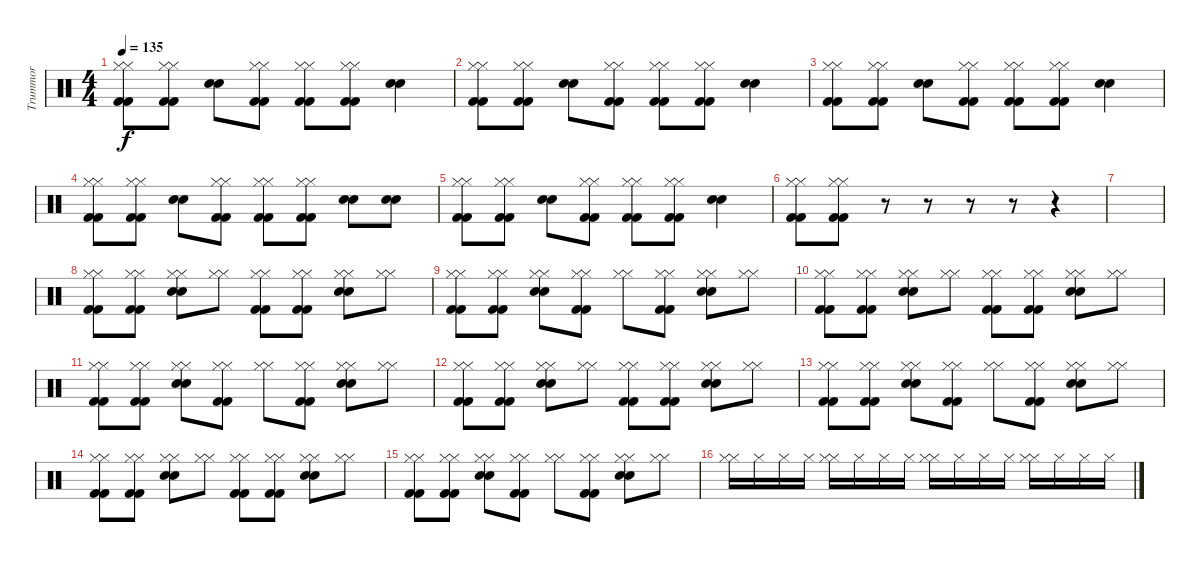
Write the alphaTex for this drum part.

\track ("Trummor" "Trummor") {instrument percussion}
\staff {score}
\articulation defaults
\ts (4 4)
\tempo 135
\clef neutral
\ks c
("Hi-Hat (closed)" "Hi-Hat (closed)" "Kick (hit) 2" "Kick (hit) 2").8{dy f} ("Hi-Hat (closed)" "Hi-Hat (closed)" "Kick (hit) 2" "Kick (hit) 2").8 ("Snare (hit) 2" "Snare (hit) 2").8 ("Hi-Hat (closed)" "Hi-Hat (closed)" "Kick (hit) 2" "Kick (hit) 2").8 ("Hi-Hat (closed)" "Hi-Hat (closed)" "Kick (hit) 2" "Kick (hit) 2").8 ("Hi-Hat (closed)" "Hi-Hat (closed)" "Kick (hit) 2" "Kick (hit) 2").8 ("Snare (hit) 2" "Snare (hit) 2").4 |
("Hi-Hat (closed)" "Hi-Hat (closed)" "Kick (hit) 2" "Kick (hit) 2").8 ("Hi-Hat (closed)" "Hi-Hat (closed)" "Kick (hit) 2" "Kick (hit) 2").8 ("Snare (hit) 2" "Snare (hit) 2").8 ("Hi-Hat (closed)" "Hi-Hat (closed)" "Kick (hit) 2" "Kick (hit) 2").8 ("Hi-Hat (closed)" "Hi-Hat (closed)" "Kick (hit) 2" "Kick (hit) 2").8 ("Hi-Hat (closed)" "Hi-Hat (closed)" "Kick (hit) 2" "Kick (hit) 2").8 ("Snare (hit) 2" "Snare (hit) 2").4 |
("Hi-Hat (closed)" "Hi-Hat (closed)" "Kick (hit) 2" "Kick (hit) 2").8 ("Hi-Hat (closed)" "Hi-Hat (closed)" "Kick (hit) 2" "Kick (hit) 2").8 ("Snare (hit) 2" "Snare (hit) 2").8 ("Hi-Hat (closed)" "Hi-Hat (closed)" "Kick (hit) 2" "Kick (hit) 2").8 ("Hi-Hat (closed)" "Hi-Hat (closed)" "Kick (hit) 2" "Kick (hit) 2").8 ("Hi-Hat (closed)" "Hi-Hat (closed)" "Kick (hit) 2" "Kick (hit) 2").8 ("Snare (hit) 2" "Snare (hit) 2").4 |
("Hi-Hat (closed)" "Hi-Hat (closed)" "Kick (hit) 2" "Kick (hit) 2").8 ("Hi-Hat (closed)" "Hi-Hat (closed)" "Kick (hit) 2" "Kick (hit) 2").8 ("Snare (hit) 2" "Snare (hit) 2").8 ("Hi-Hat (closed)" "Hi-Hat (closed)" "Kick (hit) 2" "Kick (hit) 2").8 ("Hi-Hat (closed)" "Hi-Hat (closed)" "Kick (hit) 2" "Kick (hit) 2").8 ("Hi-Hat (closed)" "Hi-Hat (closed)" "Kick (hit) 2" "Kick (hit) 2").8 ("Snare (hit) 2" "Snare (hit) 2").8 ("Snare (hit) 2" "Snare (hit) 2").8 |
("Hi-Hat (closed)" "Hi-Hat (closed)" "Kick (hit) 2" "Kick (hit) 2").8 ("Hi-Hat (closed)" "Hi-Hat (closed)" "Kick (hit) 2" "Kick (hit) 2").8 ("Snare (hit) 2" "Snare (hit) 2").8 ("Hi-Hat (closed)" "Hi-Hat (closed)" "Kick (hit) 2" "Kick (hit) 2").8 ("Hi-Hat (closed)" "Hi-Hat (closed)" "Kick (hit) 2" "Kick (hit) 2").8 ("Hi-Hat (closed)" "Hi-Hat (closed)" "Kick (hit) 2" "Kick (hit) 2").8 ("Snare (hit) 2" "Snare (hit) 2").4 |
("Hi-Hat (closed)" "Hi-Hat (closed)" "Kick (hit) 2" "Kick (hit) 2").8 ("Hi-Hat (closed)" "Hi-Hat (closed)" "Kick (hit) 2" "Kick (hit) 2").8 r.8 r.8 r.8 r.8 r.4 |
|
("Hi-Hat (closed)" "Hi-Hat (closed)" "Kick (hit) 2" "Kick (hit) 2").8 ("Hi-Hat (closed)" "Hi-Hat (closed)" "Kick (hit) 2" "Kick (hit) 2").8 ("Hi-Hat (closed)" "Hi-Hat (closed)" "Snare (hit) 2" "Snare (hit) 2").8 ("Hi-Hat (closed)" "Hi-Hat (closed)").8 ("Hi-Hat (closed)" "Hi-Hat (closed)" "Kick (hit) 2" "Kick (hit) 2").8 ("Hi-Hat (closed)" "Hi-Hat (closed)" "Kick (hit) 2" "Kick (hit) 2").8 ("Hi-Hat (closed)" "Hi-Hat (closed)" "Snare (hit) 2" "Snare (hit) 2").8 ("Hi-Hat (closed)" "Hi-Hat (closed)").8 |
("Hi-Hat (closed)" "Hi-Hat (closed)" "Kick (hit) 2" "Kick (hit) 2").8 ("Hi-Hat (closed)" "Hi-Hat (closed)" "Kick (hit) 2" "Kick (hit) 2").8 ("Hi-Hat (closed)" "Hi-Hat (closed)" "Snare (hit) 2" "Snare (hit) 2").8 ("Hi-Hat (closed)" "Hi-Hat (closed)" "Kick (hit) 2" "Kick (hit) 2").8 ("Hi-Hat (closed)" "Hi-Hat (closed)").8 ("Hi-Hat (closed)" "Hi-Hat (closed)" "Kick (hit) 2" "Kick (hit) 2").8 ("Hi-Hat (closed)" "Hi-Hat (closed)" "Snare (hit) 2" "Snare (hit) 2").8 ("Hi-Hat (closed)" "Hi-Hat (closed)").8 |
("Hi-Hat (closed)" "Hi-Hat (closed)" "Kick (hit) 2" "Kick (hit) 2").8 ("Hi-Hat (closed)" "Hi-Hat (closed)" "Kick (hit) 2" "Kick (hit) 2").8 ("Hi-Hat (closed)" "Hi-Hat (closed)" "Snare (hit) 2" "Snare (hit) 2").8 ("Hi-Hat (closed)" "Hi-Hat (closed)").8 ("Hi-Hat (closed)" "Hi-Hat (closed)" "Kick (hit) 2" "Kick (hit) 2").8 ("Hi-Hat (closed)" "Hi-Hat (closed)" "Kick (hit) 2" "Kick (hit) 2").8 ("Hi-Hat (closed)" "Hi-Hat (closed)" "Snare (hit) 2" "Snare (hit) 2").8 ("Hi-Hat (closed)" "Hi-Hat (closed)").8 |
("Hi-Hat (closed)" "Hi-Hat (closed)" "Kick (hit) 2" "Kick (hit) 2").8 ("Hi-Hat (closed)" "Hi-Hat (closed)" "Kick (hit) 2" "Kick (hit) 2").8 ("Hi-Hat (closed)" "Hi-Hat (closed)" "Snare (hit) 2" "Snare (hit) 2").8 ("Hi-Hat (closed)" "Hi-Hat (closed)" "Kick (hit) 2" "Kick (hit) 2").8 ("Hi-Hat (closed)" "Hi-Hat (closed)").8 ("Hi-Hat (closed)" "Hi-Hat (closed)" "Kick (hit) 2" "Kick (hit) 2").8 ("Hi-Hat (closed)" "Hi-Hat (closed)" "Snare (hit) 2" "Snare (hit) 2").8 ("Hi-Hat (closed)" "Hi-Hat (closed)").8 |
("Hi-Hat (closed)" "Hi-Hat (closed)" "Kick (hit) 2" "Kick (hit) 2").8 ("Hi-Hat (closed)" "Hi-Hat (closed)" "Kick (hit) 2" "Kick (hit) 2").8 ("Hi-Hat (closed)" "Hi-Hat (closed)" "Snare (hit) 2" "Snare (hit) 2").8 ("Hi-Hat (closed)" "Hi-Hat (closed)").8 ("Hi-Hat (closed)" "Hi-Hat (closed)" "Kick (hit) 2" "Kick (hit) 2").8 ("Hi-Hat (closed)" "Hi-Hat (closed)" "Kick (hit) 2" "Kick (hit) 2").8 ("Hi-Hat (closed)" "Hi-Hat (closed)" "Snare (hit) 2" "Snare (hit) 2").8 ("Hi-Hat (closed)" "Hi-Hat (closed)").8 |
("Hi-Hat (closed)" "Hi-Hat (closed)" "Kick (hit) 2" "Kick (hit) 2").8 ("Hi-Hat (closed)" "Hi-Hat (closed)" "Kick (hit) 2" "Kick (hit) 2").8 ("Hi-Hat (closed)" "Hi-Hat (closed)" "Snare (hit) 2" "Snare (hit) 2").8 ("Hi-Hat (closed)" "Hi-Hat (closed)" "Kick (hit) 2" "Kick (hit) 2").8 ("Hi-Hat (closed)" "Hi-Hat (closed)").8 ("Hi-Hat (closed)" "Hi-Hat (closed)" "Kick (hit) 2" "Kick (hit) 2").8 ("Hi-Hat (closed)" "Hi-Hat (closed)" "Snare (hit) 2" "Snare (hit) 2").8 ("Hi-Hat (closed)" "Hi-Hat (closed)").8 |
("Hi-Hat (closed)" "Hi-Hat (closed)" "Kick (hit) 2" "Kick (hit) 2").8 ("Hi-Hat (closed)" "Hi-Hat (closed)" "Kick (hit) 2" "Kick (hit) 2").8 ("Hi-Hat (closed)" "Hi-Hat (closed)" "Snare (hit) 2" "Snare (hit) 2").8 ("Hi-Hat (closed)" "Hi-Hat (closed)").8 ("Hi-Hat (closed)" "Hi-Hat (closed)" "Kick (hit) 2" "Kick (hit) 2").8 ("Hi-Hat (closed)" "Hi-Hat (closed)" "Kick (hit) 2" "Kick (hit) 2").8 ("Hi-Hat (closed)" "Hi-Hat (closed)" "Snare (hit) 2" "Snare (hit) 2").8 ("Hi-Hat (closed)" "Hi-Hat (closed)").8 |
("Hi-Hat (closed)" "Hi-Hat (closed)" "Kick (hit) 2" "Kick (hit) 2").8 ("Hi-Hat (closed)" "Hi-Hat (closed)" "Kick (hit) 2" "Kick (hit) 2").8 ("Hi-Hat (closed)" "Hi-Hat (closed)" "Snare (hit) 2" "Snare (hit) 2").8 ("Hi-Hat (closed)" "Hi-Hat (closed)" "Kick (hit) 2" "Kick (hit) 2").8 ("Hi-Hat (closed)" "Hi-Hat (closed)").8 ("Hi-Hat (closed)" "Hi-Hat (closed)" "Kick (hit) 2" "Kick (hit) 2").8 ("Hi-Hat (closed)" "Hi-Hat (closed)" "Snare (hit) 2" "Snare (hit) 2").8 ("Hi-Hat (closed)" "Hi-Hat (closed)").8 |
("Hi-Hat (closed)" "Hi-Hat (closed)").16 "Hi-Hat (closed)".16 "Hi-Hat (closed)".16 "Hi-Hat (closed)".16 ("Hi-Hat (closed)" "Hi-Hat (closed)").16 "Hi-Hat (closed)".16 "Hi-Hat (closed)".16 "Hi-Hat (closed)".16 ("Hi-Hat (closed)" "Hi-Hat (closed)").16 "Hi-Hat (closed)".16 "Hi-Hat (closed)".16 "Hi-Hat (closed)".16 ("Hi-Hat (closed)" "Hi-Hat (closed)").16 "Hi-Hat (closed)".16 "Hi-Hat (closed)".16 "Hi-Hat (closed)".16
